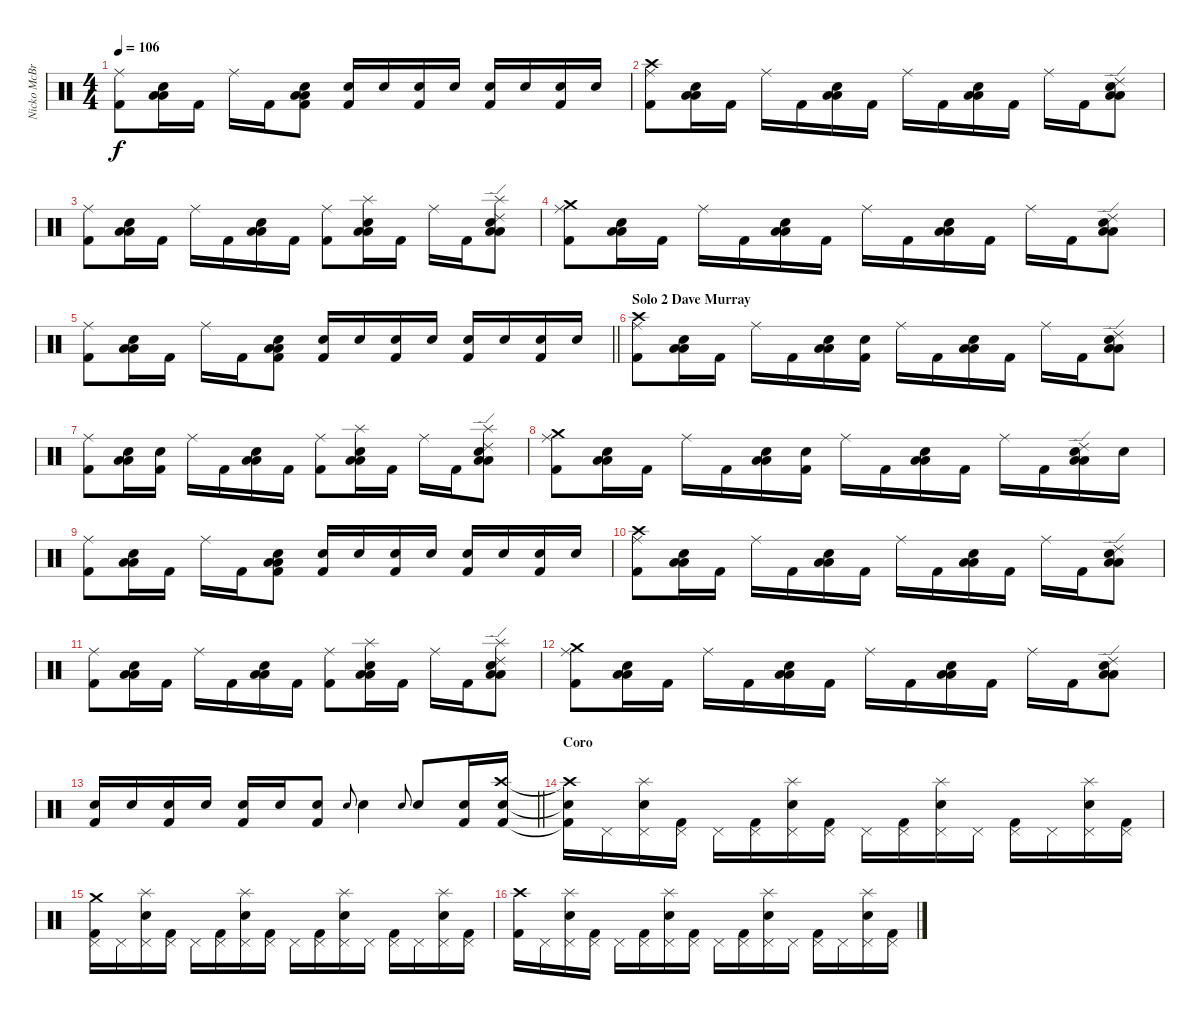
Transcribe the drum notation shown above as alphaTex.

\track ("Nicko McBrain" "Nicko McBr") {instrument percussion}
\staff {score}
\articulation defaults
\ts (4 4)
\tempo 106
\clef neutral
\ks c
("Ride (middle)" "Kick (hit) 2").8{dy f} ("Electric Snare (hit)" "Low Tom (hit)" "Low Floor Tom (hit)").16 "Kick (hit) 2".16 "Ride (middle)".16 "Kick (hit) 2".16 ("Electric Snare (hit)" "Low Tom (hit)" "Low Floor Tom (hit)" "Kick (hit) 2").8 ("Electric Snare (hit)" "Kick (hit) 2").16 "Electric Snare (hit)".16 ("Electric Snare (hit)" "Kick (hit) 2").16 "Electric Snare (hit)".16 ("Electric Snare (hit)" "Kick (hit) 2").16 "Electric Snare (hit)".16 ("Electric Snare (hit)" "Kick (hit) 2").16 "Electric Snare (hit)".16 |
("Ride (middle)" "Crash high (hit)" "Kick (hit) 2").8 ("Electric Snare (hit)" "Low Tom (hit)" "Low Floor Tom (hit)").16 "Kick (hit) 2".16 "Ride (middle)".16 "Kick (hit) 2".16 ("Electric Snare (hit)" "Low Tom (hit)" "Low Floor Tom (hit)").16 "Kick (hit) 2".16 "Ride (middle)".16 "Kick (hit) 2".16 ("Electric Snare (hit)" "Low Tom (hit)" "Low Floor Tom (hit)").16 "Kick (hit) 2".16 "Ride (middle)".16 "Kick (hit) 2".16 ("Ride (edge) 2" "Electric Snare (hit)" "Low Tom (hit)" "Low Floor Tom (hit)").8 |
("Ride (middle)" "Kick (hit) 2").8 ("Electric Snare (hit)" "Low Tom (hit)" "Low Floor Tom (hit)").16 "Kick (hit) 2".16 "Ride (middle)".16 "Kick (hit) 2".16 ("Electric Snare (hit)" "Low Tom (hit)" "Low Floor Tom (hit)").16 "Kick (hit) 2".16 ("Ride (middle)" "Kick (hit) 2").8 ("Electric Snare (hit)" "Low Tom (hit)" "Low Floor Tom (hit)" "Splash (hit)").16 "Kick (hit) 2".16 "Ride (middle)".16 "Kick (hit) 2".16 ("Ride (edge) 2" "Electric Snare (hit)" "Low Tom (hit)" "Low Floor Tom (hit)" "Splash (hit)").8 |
("Ride (middle)" "Crash medium (hit)" "Kick (hit) 2").8 ("Electric Snare (hit)" "Low Tom (hit)" "Low Floor Tom (hit)").16 "Kick (hit) 2".16 "Ride (middle)".16 "Kick (hit) 2".16 ("Electric Snare (hit)" "Low Tom (hit)" "Low Floor Tom (hit)").16 "Kick (hit) 2".16 "Ride (middle)".16 "Kick (hit) 2".16 ("Electric Snare (hit)" "Low Tom (hit)" "Low Floor Tom (hit)").16 "Kick (hit) 2".16 "Ride (middle)".16 "Kick (hit) 2".16 ("Ride (edge) 2" "Electric Snare (hit)" "Low Tom (hit)" "Low Floor Tom (hit)").8 |
\barLineRight lightlight
("Ride (middle)" "Kick (hit) 2").8 ("Electric Snare (hit)" "Low Tom (hit)" "Low Floor Tom (hit)").16 "Kick (hit) 2".16 "Ride (middle)".16 "Kick (hit) 2".16 ("Electric Snare (hit)" "Low Tom (hit)" "Low Floor Tom (hit)" "Kick (hit) 2").8 ("Electric Snare (hit)" "Kick (hit) 2").16 "Electric Snare (hit)".16 ("Electric Snare (hit)" "Kick (hit) 2").16 "Electric Snare (hit)".16 ("Electric Snare (hit)" "Kick (hit) 2").16 "Electric Snare (hit)".16 ("Electric Snare (hit)" "Kick (hit) 2").16 "Electric Snare (hit)".16 |
\section ("" "Solo 2 Dave Murray")
("Ride (middle)" "Crash high (hit)" "Kick (hit) 2").8 ("Electric Snare (hit)" "Low Tom (hit)" "Low Floor Tom (hit)").16 "Kick (hit) 2".16 "Ride (middle)".16 "Kick (hit) 2".16 ("Electric Snare (hit)" "Low Tom (hit)" "Low Floor Tom (hit)").16 ("Electric Snare (hit)" "Kick (hit) 2").16 "Ride (middle)".16 "Kick (hit) 2".16 ("Electric Snare (hit)" "Low Tom (hit)" "Low Floor Tom (hit)").16 "Kick (hit) 2".16 "Ride (middle)".16 "Kick (hit) 2".16 ("Ride (edge) 2" "Electric Snare (hit)" "Low Tom (hit)" "Low Floor Tom (hit)").8 |
("Ride (middle)" "Kick (hit) 2").8 ("Electric Snare (hit)" "Low Tom (hit)" "Low Floor Tom (hit)").16 ("Electric Snare (hit)" "Kick (hit) 2").16 "Ride (middle)".16 "Kick (hit) 2".16 ("Electric Snare (hit)" "Low Tom (hit)" "Low Floor Tom (hit)").16 "Kick (hit) 2".16 ("Ride (middle)" "Kick (hit) 2").8 ("Electric Snare (hit)" "Low Tom (hit)" "Low Floor Tom (hit)" "Splash (hit)").16 "Kick (hit) 2".16 "Ride (middle)".16 "Kick (hit) 2".16 ("Ride (edge) 2" "Electric Snare (hit)" "Low Tom (hit)" "Low Floor Tom (hit)" "Splash (hit)").8 |
("Ride (middle)" "Crash medium (hit)" "Kick (hit) 2").8 ("Electric Snare (hit)" "Low Tom (hit)" "Low Floor Tom (hit)").16 "Kick (hit) 2".16 "Ride (middle)".16 "Kick (hit) 2".16 ("Electric Snare (hit)" "Low Tom (hit)" "Low Floor Tom (hit)").16 ("Electric Snare (hit)" "Kick (hit) 2").16 "Ride (middle)".16 "Kick (hit) 2".16 ("Electric Snare (hit)" "Low Tom (hit)" "Low Floor Tom (hit)").16 "Kick (hit) 2".16 "Ride (middle)".16 "Kick (hit) 2".16 ("Ride (edge) 2" "Electric Snare (hit)" "Low Tom (hit)" "Low Floor Tom (hit)").16 "Electric Snare (hit)".16 |
("Ride (middle)" "Kick (hit) 2").8 ("Electric Snare (hit)" "Low Tom (hit)" "Low Floor Tom (hit)").16 "Kick (hit) 2".16 "Ride (middle)".16 "Kick (hit) 2".16 ("Electric Snare (hit)" "Low Tom (hit)" "Low Floor Tom (hit)" "Kick (hit) 2").8 ("Electric Snare (hit)" "Kick (hit) 2").16 "Electric Snare (hit)".16 ("Electric Snare (hit)" "Kick (hit) 2").16 "Electric Snare (hit)".16 ("Electric Snare (hit)" "Kick (hit) 2").16 "Electric Snare (hit)".16 ("Electric Snare (hit)" "Kick (hit) 2").16 "Electric Snare (hit)".16 |
("Ride (middle)" "Crash high (hit)" "Kick (hit) 2").8 ("Electric Snare (hit)" "Low Tom (hit)" "Low Floor Tom (hit)").16 "Kick (hit) 2".16 "Ride (middle)".16 "Kick (hit) 2".16 ("Electric Snare (hit)" "Low Tom (hit)" "Low Floor Tom (hit)").16 "Kick (hit) 2".16 "Ride (middle)".16 "Kick (hit) 2".16 ("Electric Snare (hit)" "Low Tom (hit)" "Low Floor Tom (hit)").16 "Kick (hit) 2".16 "Ride (middle)".16 "Kick (hit) 2".16 ("Ride (edge) 2" "Electric Snare (hit)" "Low Tom (hit)" "Low Floor Tom (hit)").8 |
("Ride (middle)" "Kick (hit) 2").8 ("Electric Snare (hit)" "Low Tom (hit)" "Low Floor Tom (hit)").16 "Kick (hit) 2".16 "Ride (middle)".16 "Kick (hit) 2".16 ("Electric Snare (hit)" "Low Tom (hit)" "Low Floor Tom (hit)").16 "Kick (hit) 2".16 ("Ride (middle)" "Kick (hit) 2").8 ("Electric Snare (hit)" "Low Tom (hit)" "Low Floor Tom (hit)" "Splash (hit)").16 "Kick (hit) 2".16 "Ride (middle)".16 "Kick (hit) 2".16 ("Ride (edge) 2" "Electric Snare (hit)" "Low Tom (hit)" "Low Floor Tom (hit)" "Splash (hit)").8 |
("Ride (middle)" "Crash medium (hit)" "Kick (hit) 2").8 ("Electric Snare (hit)" "Low Tom (hit)" "Low Floor Tom (hit)").16 "Kick (hit) 2".16 "Ride (middle)".16 "Kick (hit) 2".16 ("Electric Snare (hit)" "Low Tom (hit)" "Low Floor Tom (hit)").16 "Kick (hit) 2".16 "Ride (middle)".16 "Kick (hit) 2".16 ("Electric Snare (hit)" "Low Tom (hit)" "Low Floor Tom (hit)").16 "Kick (hit) 2".16 "Ride (middle)".16 "Kick (hit) 2".16 ("Ride (edge) 2" "Electric Snare (hit)" "Low Tom (hit)" "Low Floor Tom (hit)").8 |
\barLineRight lightlight
("Electric Snare (hit)" "Kick (hit) 2").16 "Electric Snare (hit)".16 ("Electric Snare (hit)" "Kick (hit) 2").16 "Electric Snare (hit)".16 ("Electric Snare (hit)" "Kick (hit) 2").16 "Electric Snare (hit)".16 ("Electric Snare (hit)" "Kick (hit) 2").8 "Electric Snare (hit)".8{gr onbeat} "Electric Snare (hit)".4 "Electric Snare (hit)".8{gr onbeat} "Electric Snare (hit)".8 ("Electric Snare (hit)" "Kick (hit) 2").16 ("Snare (hit) 2" "Crash high (hit)" "Kick (hit) 2").16 |
\section ("" "Coro")
("Snare (hit) 2"{t} "Crash high (hit)"{t} "Kick (hit) 2"{t}).16 "Pedal Hi-Hat (hit)".16 ("Pedal Hi-Hat (hit)" "Snare (hit) 2" "Splash (hit)").16 ("Pedal Hi-Hat (hit)" "Kick (hit) 2").16 "Pedal Hi-Hat (hit)".16 ("Pedal Hi-Hat (hit)" "Kick (hit) 2").16 ("Pedal Hi-Hat (hit)" "Snare (hit) 2" "Splash (hit)").16 ("Pedal Hi-Hat (hit)" "Kick (hit) 2").16 "Pedal Hi-Hat (hit)".16 ("Pedal Hi-Hat (hit)" "Kick (hit) 2").16 ("Pedal Hi-Hat (hit)" "Snare (hit) 2" "Splash (hit)").16 "Pedal Hi-Hat (hit)".16 ("Pedal Hi-Hat (hit)" "Kick (hit) 2").16 "Pedal Hi-Hat (hit)".16 ("Pedal Hi-Hat (hit)" "Snare (hit) 2" "Splash (hit)").16 ("Pedal Hi-Hat (hit)" "Kick (hit) 2").16 |
("Pedal Hi-Hat (hit)" "Crash medium (hit)" "Kick (hit) 2").16 "Pedal Hi-Hat (hit)".16 ("Pedal Hi-Hat (hit)" "Snare (hit) 2" "Splash (hit)").16 ("Pedal Hi-Hat (hit)" "Kick (hit) 2").16 "Pedal Hi-Hat (hit)".16 ("Pedal Hi-Hat (hit)" "Kick (hit) 2").16 ("Pedal Hi-Hat (hit)" "Snare (hit) 2" "Splash (hit)").16 ("Pedal Hi-Hat (hit)" "Kick (hit) 2").16 "Pedal Hi-Hat (hit)".16 ("Pedal Hi-Hat (hit)" "Kick (hit) 2").16 ("Pedal Hi-Hat (hit)" "Snare (hit) 2" "Splash (hit)").16 "Pedal Hi-Hat (hit)".16 ("Pedal Hi-Hat (hit)" "Kick (hit) 2").16 "Pedal Hi-Hat (hit)".16 ("Pedal Hi-Hat (hit)" "Snare (hit) 2" "Splash (hit)").16 ("Pedal Hi-Hat (hit)" "Kick (hit) 2").16 |
("Crash high (hit)" "Kick (hit) 2").16 "Pedal Hi-Hat (hit)".16 ("Pedal Hi-Hat (hit)" "Snare (hit) 2" "Splash (hit)").16 ("Pedal Hi-Hat (hit)" "Kick (hit) 2").16 "Pedal Hi-Hat (hit)".16 ("Pedal Hi-Hat (hit)" "Kick (hit) 2").16 ("Pedal Hi-Hat (hit)" "Snare (hit) 2" "Splash (hit)").16 ("Pedal Hi-Hat (hit)" "Kick (hit) 2").16 "Pedal Hi-Hat (hit)".16 ("Pedal Hi-Hat (hit)" "Kick (hit) 2").16 ("Pedal Hi-Hat (hit)" "Snare (hit) 2" "Splash (hit)").16 "Pedal Hi-Hat (hit)".16 ("Pedal Hi-Hat (hit)" "Kick (hit) 2").16 "Pedal Hi-Hat (hit)".16 ("Pedal Hi-Hat (hit)" "Snare (hit) 2" "Splash (hit)").16 ("Pedal Hi-Hat (hit)" "Kick (hit) 2").16
